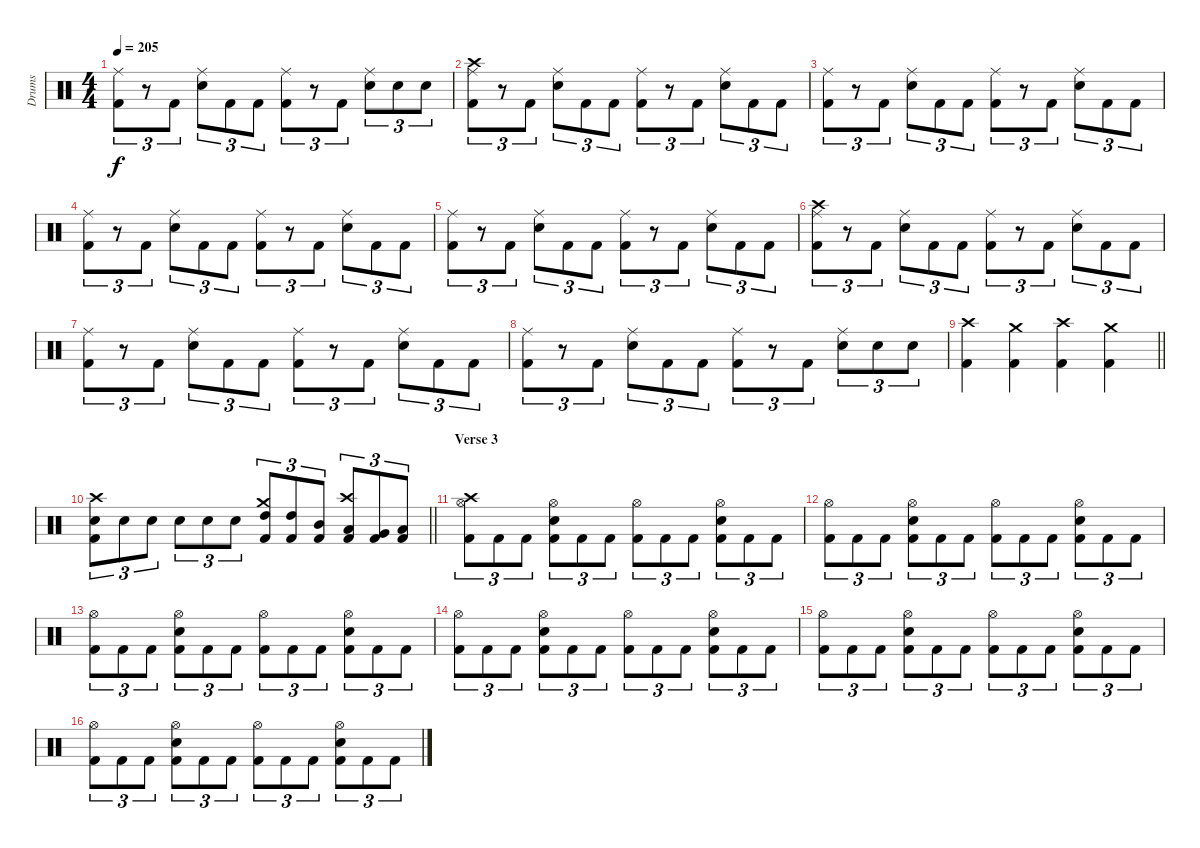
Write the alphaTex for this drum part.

\track ("Drums" "Drums") {instrument percussion}
\staff {score}
\articulation defaults
\ts (4 4)
\tempo 205
\clef neutral
\ks c
("Ride (middle)" "Kick (hit) 2").8{tu (3 2) dy f} r.8{tu (3 2)} "Kick (hit) 2".8{tu (3 2)} ("Ride (middle)" "Snare (hit) 2").8{tu (3 2)} "Kick (hit) 2".8{tu (3 2)} "Kick (hit) 2".8{tu (3 2)} ("Ride (middle)" "Kick (hit) 2").8{tu (3 2)} r.8{tu (3 2)} "Kick (hit) 2".8{tu (3 2)} ("Ride (middle)" "Snare (hit) 2").8{tu (3 2)} "Snare (hit) 2".8{tu (3 2)} "Snare (hit) 2".8{tu (3 2)} |
("Crash high (hit)" "Ride (middle)" "Kick (hit) 2").8{tu (3 2)} r.8{tu (3 2)} "Kick (hit) 2".8{tu (3 2)} ("Ride (middle)" "Snare (hit) 2").8{tu (3 2)} "Kick (hit) 2".8{tu (3 2)} "Kick (hit) 2".8{tu (3 2)} ("Ride (middle)" "Kick (hit) 2").8{tu (3 2)} r.8{tu (3 2)} "Kick (hit) 2".8{tu (3 2)} ("Ride (middle)" "Snare (hit) 2").8{tu (3 2)} "Kick (hit) 2".8{tu (3 2)} "Kick (hit) 2".8{tu (3 2)} |
("Ride (middle)" "Kick (hit) 2").8{tu (3 2)} r.8{tu (3 2)} "Kick (hit) 2".8{tu (3 2)} ("Ride (middle)" "Snare (hit) 2").8{tu (3 2)} "Kick (hit) 2".8{tu (3 2)} "Kick (hit) 2".8{tu (3 2)} ("Ride (middle)" "Kick (hit) 2").8{tu (3 2)} r.8{tu (3 2)} "Kick (hit) 2".8{tu (3 2)} ("Ride (middle)" "Snare (hit) 2").8{tu (3 2)} "Kick (hit) 2".8{tu (3 2)} "Kick (hit) 2".8{tu (3 2)} |
("Ride (middle)" "Kick (hit) 2").8{tu (3 2)} r.8{tu (3 2)} "Kick (hit) 2".8{tu (3 2)} ("Ride (middle)" "Snare (hit) 2").8{tu (3 2)} "Kick (hit) 2".8{tu (3 2)} "Kick (hit) 2".8{tu (3 2)} ("Ride (middle)" "Kick (hit) 2").8{tu (3 2)} r.8{tu (3 2)} "Kick (hit) 2".8{tu (3 2)} ("Ride (middle)" "Snare (hit) 2").8{tu (3 2)} "Kick (hit) 2".8{tu (3 2)} "Kick (hit) 2".8{tu (3 2)} |
("Ride (middle)" "Kick (hit) 2").8{tu (3 2)} r.8{tu (3 2)} "Kick (hit) 2".8{tu (3 2)} ("Ride (middle)" "Snare (hit) 2").8{tu (3 2)} "Kick (hit) 2".8{tu (3 2)} "Kick (hit) 2".8{tu (3 2)} ("Ride (middle)" "Kick (hit) 2").8{tu (3 2)} r.8{tu (3 2)} "Kick (hit) 2".8{tu (3 2)} ("Ride (middle)" "Snare (hit) 2").8{tu (3 2)} "Kick (hit) 2".8{tu (3 2)} "Kick (hit) 2".8{tu (3 2)} |
("Crash high (hit)" "Ride (middle)" "Kick (hit) 2").8{tu (3 2)} r.8{tu (3 2)} "Kick (hit) 2".8{tu (3 2)} ("Ride (middle)" "Snare (hit) 2").8{tu (3 2)} "Kick (hit) 2".8{tu (3 2)} "Kick (hit) 2".8{tu (3 2)} ("Ride (middle)" "Kick (hit) 2").8{tu (3 2)} r.8{tu (3 2)} "Kick (hit) 2".8{tu (3 2)} ("Ride (middle)" "Snare (hit) 2").8{tu (3 2)} "Kick (hit) 2".8{tu (3 2)} "Kick (hit) 2".8{tu (3 2)} |
("Ride (middle)" "Kick (hit) 2").8{tu (3 2)} r.8{tu (3 2)} "Kick (hit) 2".8{tu (3 2)} ("Ride (middle)" "Snare (hit) 2").8{tu (3 2)} "Kick (hit) 2".8{tu (3 2)} "Kick (hit) 2".8{tu (3 2)} ("Ride (middle)" "Kick (hit) 2").8{tu (3 2)} r.8{tu (3 2)} "Kick (hit) 2".8{tu (3 2)} ("Ride (middle)" "Snare (hit) 2").8{tu (3 2)} "Kick (hit) 2".8{tu (3 2)} "Kick (hit) 2".8{tu (3 2)} |
("Ride (middle)" "Kick (hit) 2").8{tu (3 2)} r.8{tu (3 2)} "Kick (hit) 2".8{tu (3 2)} ("Ride (middle)" "Snare (hit) 2").8{tu (3 2)} "Kick (hit) 2".8{tu (3 2)} "Kick (hit) 2".8{tu (3 2)} ("Ride (middle)" "Kick (hit) 2").8{tu (3 2)} r.8{tu (3 2)} "Kick (hit) 2".8{tu (3 2)} ("Ride (middle)" "Snare (hit) 2").8{tu (3 2)} "Snare (hit) 2".8{tu (3 2)} "Snare (hit) 2".8{tu (3 2)} |
\barLineRight lightlight
("Crash high (hit)" "Kick (hit) 2").4 ("Crash medium (hit)" "Kick (hit) 2").4 ("Crash high (hit)" "Kick (hit) 2").4 ("Crash medium (hit)" "Kick (hit) 2").4 |
\barLineRight lightlight
("Crash high (hit)" "Snare (hit) 2" "Kick (hit) 2").8{tu (3 2)} "Snare (hit) 2".8{tu (3 2)} "Snare (hit) 2".8{tu (3 2)} "Snare (hit) 2".8{tu (3 2)} "Snare (hit) 2".8{tu (3 2)} "Snare (hit) 2".8{tu (3 2)} ("Crash medium (hit)" "High Tom (hit)" "Kick (hit) 2").8{tu (3 2)} ("High Tom (hit)" "Kick (hit) 2").8{tu (3 2)} ("Mid Tom (hit)" "Kick (hit) 2").8{tu (3 2)} ("Crash high (hit)" "Low Tom (hit)" "Kick (hit) 2").8{tu (3 2)} ("Very Low Tom (hit)" "Kick (hit) 2").8{tu (3 2)} ("Low Floor Tom (hit)" "Kick (hit) 2").8{tu (3 2)} |
\section ("" "Verse 3")
("Crash high (hit)" "Hi-Hat (open)" "Kick (hit) 2").8{tu (3 2)} "Kick (hit) 2".8{tu (3 2)} "Kick (hit) 2".8{tu (3 2)} ("Hi-Hat (open)" "Snare (hit) 2" "Kick (hit) 2").8{tu (3 2)} "Kick (hit) 2".8{tu (3 2)} "Kick (hit) 2".8{tu (3 2)} ("Hi-Hat (open)" "Kick (hit) 2").8{tu (3 2)} "Kick (hit) 2".8{tu (3 2)} "Kick (hit) 2".8{tu (3 2)} ("Hi-Hat (open)" "Snare (hit) 2" "Kick (hit) 2").8{tu (3 2)} "Kick (hit) 2".8{tu (3 2)} "Kick (hit) 2".8{tu (3 2)} |
("Hi-Hat (open)" "Kick (hit) 2").8{tu (3 2)} "Kick (hit) 2".8{tu (3 2)} "Kick (hit) 2".8{tu (3 2)} ("Hi-Hat (open)" "Snare (hit) 2" "Kick (hit) 2").8{tu (3 2)} "Kick (hit) 2".8{tu (3 2)} "Kick (hit) 2".8{tu (3 2)} ("Hi-Hat (open)" "Kick (hit) 2").8{tu (3 2)} "Kick (hit) 2".8{tu (3 2)} "Kick (hit) 2".8{tu (3 2)} ("Hi-Hat (open)" "Snare (hit) 2" "Kick (hit) 2").8{tu (3 2)} "Kick (hit) 2".8{tu (3 2)} "Kick (hit) 2".8{tu (3 2)} |
("Hi-Hat (open)" "Kick (hit) 2").8{tu (3 2)} "Kick (hit) 2".8{tu (3 2)} "Kick (hit) 2".8{tu (3 2)} ("Hi-Hat (open)" "Snare (hit) 2" "Kick (hit) 2").8{tu (3 2)} "Kick (hit) 2".8{tu (3 2)} "Kick (hit) 2".8{tu (3 2)} ("Hi-Hat (open)" "Kick (hit) 2").8{tu (3 2)} "Kick (hit) 2".8{tu (3 2)} "Kick (hit) 2".8{tu (3 2)} ("Hi-Hat (open)" "Snare (hit) 2" "Kick (hit) 2").8{tu (3 2)} "Kick (hit) 2".8{tu (3 2)} "Kick (hit) 2".8{tu (3 2)} |
("Hi-Hat (open)" "Kick (hit) 2").8{tu (3 2)} "Kick (hit) 2".8{tu (3 2)} "Kick (hit) 2".8{tu (3 2)} ("Hi-Hat (open)" "Snare (hit) 2" "Kick (hit) 2").8{tu (3 2)} "Kick (hit) 2".8{tu (3 2)} "Kick (hit) 2".8{tu (3 2)} ("Hi-Hat (open)" "Kick (hit) 2").8{tu (3 2)} "Kick (hit) 2".8{tu (3 2)} "Kick (hit) 2".8{tu (3 2)} ("Hi-Hat (open)" "Snare (hit) 2" "Kick (hit) 2").8{tu (3 2)} "Kick (hit) 2".8{tu (3 2)} "Kick (hit) 2".8{tu (3 2)} |
("Hi-Hat (open)" "Kick (hit) 2").8{tu (3 2)} "Kick (hit) 2".8{tu (3 2)} "Kick (hit) 2".8{tu (3 2)} ("Hi-Hat (open)" "Snare (hit) 2" "Kick (hit) 2").8{tu (3 2)} "Kick (hit) 2".8{tu (3 2)} "Kick (hit) 2".8{tu (3 2)} ("Hi-Hat (open)" "Kick (hit) 2").8{tu (3 2)} "Kick (hit) 2".8{tu (3 2)} "Kick (hit) 2".8{tu (3 2)} ("Hi-Hat (open)" "Snare (hit) 2" "Kick (hit) 2").8{tu (3 2)} "Kick (hit) 2".8{tu (3 2)} "Kick (hit) 2".8{tu (3 2)} |
("Hi-Hat (open)" "Kick (hit) 2").8{tu (3 2)} "Kick (hit) 2".8{tu (3 2)} "Kick (hit) 2".8{tu (3 2)} ("Hi-Hat (open)" "Snare (hit) 2" "Kick (hit) 2").8{tu (3 2)} "Kick (hit) 2".8{tu (3 2)} "Kick (hit) 2".8{tu (3 2)} ("Hi-Hat (open)" "Kick (hit) 2").8{tu (3 2)} "Kick (hit) 2".8{tu (3 2)} "Kick (hit) 2".8{tu (3 2)} ("Hi-Hat (open)" "Snare (hit) 2" "Kick (hit) 2").8{tu (3 2)} "Kick (hit) 2".8{tu (3 2)} "Kick (hit) 2".8{tu (3 2)}
